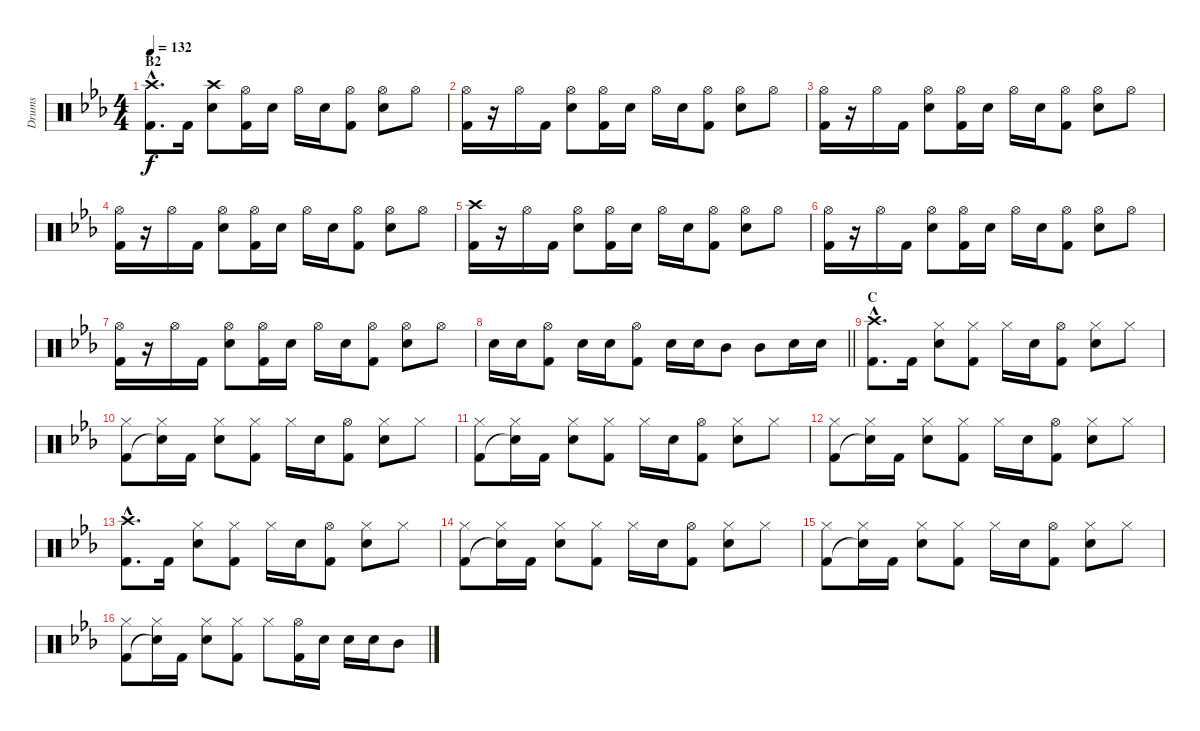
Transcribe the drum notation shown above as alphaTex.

\track ("Drums" "Drums") {instrument percussion}
\staff {score}
\articulation defaults
\ts (4 4)
\section ("" "B2")
\tempo 132
\clef neutral
\ks eb
("Crash high (hit)"{hac} "Kick (hit) 2"{hac}).8{d dy f} "Kick (hit) 2".16 ("Crash high (hit)" "Snare (hit) 2").8 ("Hi-Hat (open)" "Kick (hit) 2").16 "Snare (hit) 2".16 "Hi-Hat (open)".16 "Snare (hit) 2".16 ("Hi-Hat (open)" "Kick (hit) 2").8 ("Hi-Hat (open)" "Snare (hit) 2").8 "Hi-Hat (open)".8 |
("Hi-Hat (open)" "Kick (hit) 2").16 r.16 "Hi-Hat (open)".16 "Kick (hit) 2".16 ("Hi-Hat (open)" "Snare (hit) 2").8 ("Hi-Hat (open)" "Kick (hit) 2").16 "Snare (hit) 2".16 "Hi-Hat (open)".16 "Snare (hit) 2".16 ("Hi-Hat (open)" "Kick (hit) 2").8 ("Hi-Hat (open)" "Snare (hit) 2").8 "Hi-Hat (open)".8 |
("Hi-Hat (open)" "Kick (hit) 2").16 r.16 "Hi-Hat (open)".16 "Kick (hit) 2".16 ("Hi-Hat (open)" "Snare (hit) 2").8 ("Hi-Hat (open)" "Kick (hit) 2").16 "Snare (hit) 2".16 "Hi-Hat (open)".16 "Snare (hit) 2".16 ("Hi-Hat (open)" "Kick (hit) 2").8 ("Hi-Hat (open)" "Snare (hit) 2").8 "Hi-Hat (open)".8 |
("Hi-Hat (open)" "Kick (hit) 2").16 r.16 "Hi-Hat (open)".16 "Kick (hit) 2".16 ("Hi-Hat (open)" "Snare (hit) 2").8 ("Hi-Hat (open)" "Kick (hit) 2").16 "Snare (hit) 2".16 "Hi-Hat (open)".16 "Snare (hit) 2".16 ("Hi-Hat (open)" "Kick (hit) 2").8 ("Hi-Hat (open)" "Snare (hit) 2").8 "Hi-Hat (open)".8 |
("Crash high (hit)" "Kick (hit) 2").16 r.16 "Hi-Hat (open)".16 "Kick (hit) 2".16 ("Hi-Hat (open)" "Snare (hit) 2").8 ("Hi-Hat (open)" "Kick (hit) 2").16 "Snare (hit) 2".16 "Hi-Hat (open)".16 "Snare (hit) 2".16 ("Hi-Hat (open)" "Kick (hit) 2").8 ("Hi-Hat (open)" "Snare (hit) 2").8 "Hi-Hat (open)".8 |
("Hi-Hat (open)" "Kick (hit) 2").16 r.16 "Hi-Hat (open)".16 "Kick (hit) 2".16 ("Hi-Hat (open)" "Snare (hit) 2").8 ("Hi-Hat (open)" "Kick (hit) 2").16 "Snare (hit) 2".16 "Hi-Hat (open)".16 "Snare (hit) 2".16 ("Hi-Hat (open)" "Kick (hit) 2").8 ("Hi-Hat (open)" "Snare (hit) 2").8 "Hi-Hat (open)".8 |
("Hi-Hat (open)" "Kick (hit) 2").16 r.16 "Hi-Hat (open)".16 "Kick (hit) 2".16 ("Hi-Hat (open)" "Snare (hit) 2").8 ("Hi-Hat (open)" "Kick (hit) 2").16 "Snare (hit) 2".16 "Hi-Hat (open)".16 "Snare (hit) 2".16 ("Hi-Hat (open)" "Kick (hit) 2").8 ("Hi-Hat (open)" "Snare (hit) 2").8 "Hi-Hat (open)".8 |
\barLineRight lightlight "Snare (hit) 2".16 "Snare (hit) 2".16
("Hi-Hat (open)" "Kick (hit) 2").8 "Snare (hit) 2".16 "Snare (hit) 2".16 ("Hi-Hat (open)" "Kick (hit) 2").8 "Snare (hit) 2".16 "Snare (hit) 2".16 "Mid Tom (hit)".8 "Mid Tom (hit)".8 "Snare (hit) 2".16 "Snare (hit) 2".16 |
\section ("" "C")
("Crash high (hit)"{hac} "Kick (hit) 2"{hac}).8{d} "Kick (hit) 2".16 ("Hi-Hat (closed)" "Snare (hit) 2").8 ("Hi-Hat (closed)" "Kick (hit) 2").8 "Hi-Hat (closed)".16 "Snare (hit) 2".16 ("Hi-Hat (open)" "Kick (hit) 2").8 ("Hi-Hat (closed)" "Snare (hit) 2").8 "Hi-Hat (closed)".8 |
("Hi-Hat (closed)" "Kick (hit) 2").8 ("Hi-Hat (closed)" "Snare (hit)"{t}).16 "Kick (hit) 2".16 ("Hi-Hat (closed)" "Snare (hit) 2").8 ("Hi-Hat (closed)" "Kick (hit) 2").8 "Hi-Hat (closed)".16 "Snare (hit) 2".16 ("Hi-Hat (open)" "Kick (hit) 2").8 ("Hi-Hat (closed)" "Snare (hit) 2").8 "Hi-Hat (closed)".8 |
("Hi-Hat (closed)" "Kick (hit) 2").8 ("Hi-Hat (closed)" "Snare (hit)"{t}).16 "Kick (hit) 2".16 ("Hi-Hat (closed)" "Snare (hit) 2").8 ("Hi-Hat (closed)" "Kick (hit) 2").8 "Hi-Hat (closed)".16 "Snare (hit) 2".16 ("Hi-Hat (open)" "Kick (hit) 2").8 ("Hi-Hat (closed)" "Snare (hit) 2").8 "Hi-Hat (closed)".8 |
("Hi-Hat (closed)" "Kick (hit) 2").8 ("Hi-Hat (closed)" "Snare (hit)"{t}).16 "Kick (hit) 2".16 ("Hi-Hat (closed)" "Snare (hit) 2").8 ("Hi-Hat (closed)" "Kick (hit) 2").8 "Hi-Hat (closed)".16 "Snare (hit) 2".16 ("Hi-Hat (open)" "Kick (hit) 2").8 ("Hi-Hat (closed)" "Snare (hit) 2").8 "Hi-Hat (closed)".8 |
("Crash high (hit)"{hac} "Kick (hit) 2"{hac}).8{d} "Kick (hit) 2".16 ("Hi-Hat (closed)" "Snare (hit) 2").8 ("Hi-Hat (closed)" "Kick (hit) 2").8 "Hi-Hat (closed)".16 "Snare (hit) 2".16 ("Hi-Hat (open)" "Kick (hit) 2").8 ("Hi-Hat (closed)" "Snare (hit) 2").8 "Hi-Hat (closed)".8 |
("Hi-Hat (closed)" "Kick (hit) 2").8 ("Hi-Hat (closed)" "Snare (hit)"{t}).16 "Kick (hit) 2".16 ("Hi-Hat (closed)" "Snare (hit) 2").8 ("Hi-Hat (closed)" "Kick (hit) 2").8 "Hi-Hat (closed)".16 "Snare (hit) 2".16 ("Hi-Hat (open)" "Kick (hit) 2").8 ("Hi-Hat (closed)" "Snare (hit) 2").8 "Hi-Hat (closed)".8 |
("Hi-Hat (closed)" "Kick (hit) 2").8 ("Hi-Hat (closed)" "Snare (hit)"{t}).16 "Kick (hit) 2".16 ("Hi-Hat (closed)" "Snare (hit) 2").8 ("Hi-Hat (closed)" "Kick (hit) 2").8 "Hi-Hat (closed)".16 "Snare (hit) 2".16 ("Hi-Hat (open)" "Kick (hit) 2").8 ("Hi-Hat (closed)" "Snare (hit) 2").8 "Hi-Hat (closed)".8 |
("Hi-Hat (closed)" "Kick (hit) 2").8 ("Hi-Hat (closed)" "Snare (hit)"{t}).16 "Kick (hit) 2".16 ("Hi-Hat (closed)" "Snare (hit) 2").8 ("Hi-Hat (closed)" "Kick (hit) 2").8 "Hi-Hat (closed)".8 ("Hi-Hat (open)" "Kick (hit) 2").16 "Snare (hit) 2".16 "Snare (hit) 2".16 "Snare (hit) 2".16 "Mid Tom (hit)".8
